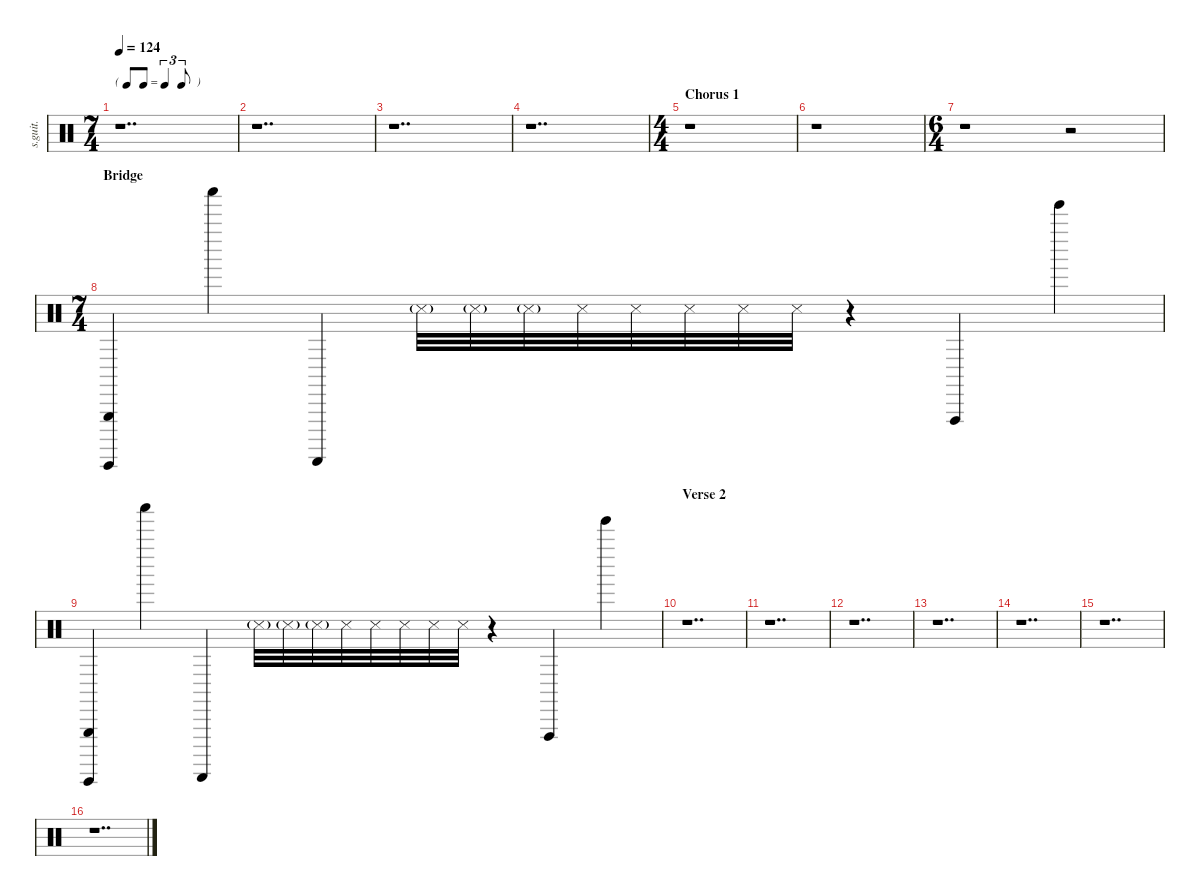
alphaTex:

\defaultSystemsLayout 4
\hideDynamics
\bracketExtendMode nobrackets
\track ("Roger Waters & Nick Mason | Tape Loops & Sound Effects" "s.guit.") {instrument percussion}
\staff {score}
\articulation defaults
\ts (7 4)
\tf triplet8th
\tempo 124
\clef neutral
\ks c
r.1{dd dy f} |
r.1{dd} |
r.1{dd} |
r.1{dd} |
\ts (4 4)
\beaming (8 2 2 2 2)
\section ("" "Chorus 1")
r.1 |
r.1 |
\ts (6 4)
\beaming (8 2 2 2 2)
r.1 r.2 |
\ts (7 4)
\beaming (8 2 2 2 2)
\section ("" "Bridge")
("Guiro (hit)" "Triangle (hit)").4 "Shaker (hit)".4 "Guiro (scrap-return)".4 "Snare (side stick) 3"{g}.32{dy ff} "Snare (side stick) 3"{g}.32{dy fff} "Snare (side stick) 3"{g}.32 "Snare (side stick) 3".32{dy f} "Snare (side stick) 3".32 "Snare (side stick) 3".32{dy ff} "Snare (side stick) 3".32{dy fff} "Snare (side stick) 3".32 r.4 "Vibraslap (hit)".4{dy f} "Jingle Bell (hit)".4 |
("Guiro (hit)" "Triangle (hit)").4 "Shaker (hit)".4 "Guiro (scrap-return)".4 "Snare (side stick) 3"{g}.32{dy ff} "Snare (side stick) 3"{g}.32{dy fff} "Snare (side stick) 3"{g}.32 "Snare (side stick) 3".32{dy f} "Snare (side stick) 3".32 "Snare (side stick) 3".32{dy ff} "Snare (side stick) 3".32{dy fff} "Snare (side stick) 3".32 r.4 "Vibraslap (hit)".4{dy f} "Jingle Bell (hit)".4 |
\section ("" "Verse 2")
r.1{dd} |
r.1{dd} |
r.1{dd} |
r.1{dd} |
r.1{dd} |
r.1{dd} |
r.1{dd}
